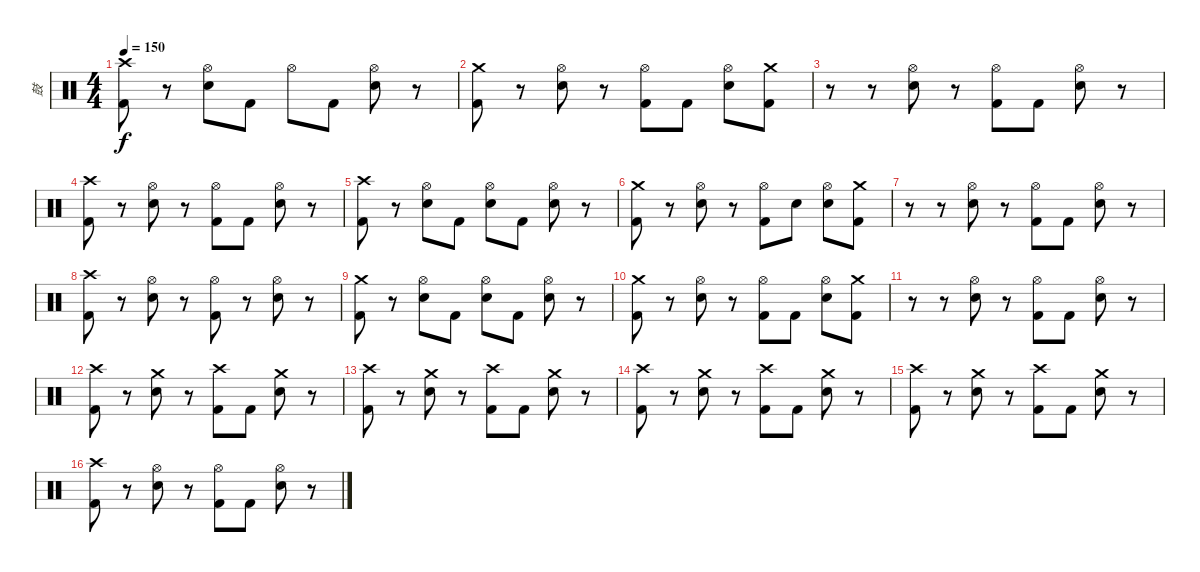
\track ("鼓" "鼓") {instrument percussion}
\staff {score}
\articulation defaults
\ts (4 4)
\tempo 150
\clef neutral
\ks c
("Crash high (hit)" "Kick (hit) 2").8{dy f} r.8 ("Hi-Hat (open)" "Electric Snare (hit)").8 "Kick (hit) 2".8 "Hi-Hat (open)".8 "Kick (hit) 2".8 ("Hi-Hat (open)" "Electric Snare (hit)").8 r.8 |
("Crash medium (hit)" "Kick (hit) 2").8 r.8 ("Hi-Hat (open)" "Electric Snare (hit)").8 r.8 ("Hi-Hat (open)" "Kick (hit) 2").8 "Kick (hit) 2".8 ("Hi-Hat (open)" "Electric Snare (hit)").8 ("Crash medium (hit)" "Kick (hit) 2").8 |
r.8 r.8 ("Hi-Hat (open)" "Electric Snare (hit)").8 r.8 ("Hi-Hat (open)" "Kick (hit) 2").8 "Kick (hit) 2".8 ("Hi-Hat (open)" "Electric Snare (hit)").8 r.8 |
("Crash high (hit)" "Kick (hit) 2").8 r.8 ("Hi-Hat (open)" "Electric Snare (hit)").8 r.8 ("Hi-Hat (open)" "Kick (hit) 2").8 "Kick (hit) 2".8 ("Hi-Hat (open)" "Electric Snare (hit)").8 r.8 |
("Crash high (hit)" "Kick (hit) 2").8 r.8 ("Hi-Hat (open)" "Electric Snare (hit)").8 "Kick (hit) 2".8 ("Hi-Hat (open)" "Electric Snare (hit)").8 "Kick (hit) 2".8 ("Hi-Hat (open)" "Electric Snare (hit)").8 r.8 |
("Crash medium (hit)" "Kick (hit) 2").8 r.8 ("Hi-Hat (open)" "Electric Snare (hit)").8 r.8 ("Hi-Hat (open)" "Kick (hit) 2").8 "Electric Snare (hit)".8 ("Hi-Hat (open)" "Electric Snare (hit)").8 ("Crash medium (hit)" "Kick (hit) 2").8 |
r.8 r.8 ("Hi-Hat (open)" "Electric Snare (hit)").8 r.8 ("Hi-Hat (open)" "Kick (hit) 2").8 "Kick (hit) 2".8 ("Hi-Hat (open)" "Electric Snare (hit)").8 r.8 |
("Crash high (hit)" "Kick (hit) 2").8 r.8 ("Hi-Hat (open)" "Electric Snare (hit)").8 r.8 ("Hi-Hat (open)" "Kick (hit) 2").8 r.8 ("Hi-Hat (open)" "Electric Snare (hit)").8 r.8 |
("Crash medium (hit)" "Kick (hit) 2").8 r.8 ("Hi-Hat (open)" "Electric Snare (hit)").8 "Kick (hit) 2".8 ("Hi-Hat (open)" "Electric Snare (hit)").8 "Kick (hit) 2".8 ("Hi-Hat (open)" "Electric Snare (hit)").8 r.8 |
("Crash medium (hit)" "Kick (hit) 2").8 r.8 ("Hi-Hat (open)" "Electric Snare (hit)").8 r.8 ("Hi-Hat (open)" "Kick (hit) 2").8 "Kick (hit) 2".8 ("Hi-Hat (open)" "Electric Snare (hit)").8 ("Crash medium (hit)" "Kick (hit) 2").8 |
r.8 r.8 ("Hi-Hat (open)" "Electric Snare (hit)").8 r.8 ("Hi-Hat (open)" "Kick (hit) 2").8 "Kick (hit) 2".8 ("Hi-Hat (open)" "Electric Snare (hit)").8 r.8 |
("Crash high (hit)" "Kick (hit) 2").8 r.8 ("Crash medium (hit)" "Electric Snare (hit)").8 r.8 ("Crash high (hit)" "Kick (hit) 2").8 "Kick (hit) 2".8 ("Crash medium (hit)" "Electric Snare (hit)").8 r.8 |
("Crash high (hit)" "Kick (hit) 2").8 r.8 ("Crash medium (hit)" "Electric Snare (hit)").8 r.8 ("Crash high (hit)" "Kick (hit) 2").8 "Kick (hit) 2".8 ("Crash medium (hit)" "Electric Snare (hit)").8 r.8 |
("Crash high (hit)" "Kick (hit) 2").8 r.8 ("Crash medium (hit)" "Electric Snare (hit)").8 r.8 ("Crash high (hit)" "Kick (hit) 2").8 "Kick (hit) 2".8 ("Crash medium (hit)" "Electric Snare (hit)").8 r.8 |
("Crash high (hit)" "Kick (hit) 2").8 r.8 ("Crash medium (hit)" "Electric Snare (hit)").8 r.8 ("Crash high (hit)" "Kick (hit) 2").8 "Kick (hit) 2".8 ("Crash medium (hit)" "Electric Snare (hit)").8 r.8 |
("Crash high (hit)" "Kick (hit) 2").8 r.8 ("Hi-Hat (open)" "Electric Snare (hit)").8 r.8 ("Hi-Hat (open)" "Kick (hit) 2").8 "Kick (hit) 2".8 ("Hi-Hat (open)" "Electric Snare (hit)").8 r.8
